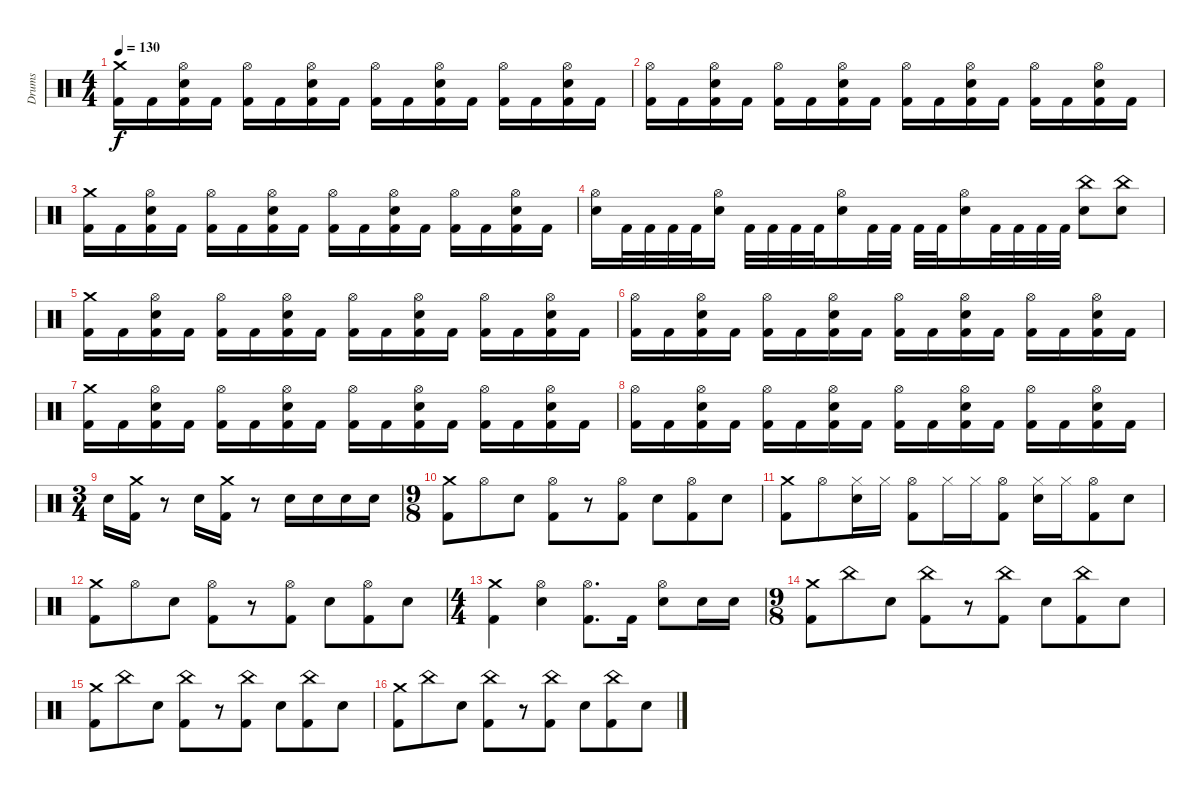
\track ("Drums" "Drums") {instrument percussion}
\staff {score}
\articulation defaults
\ts (4 4)
\tempo 130
\clef neutral
\ks c
("Kick (hit) 2" "Crash medium (hit)").16{dy f} "Kick (hit) 2".16 ("Hi-Hat (open)" "Kick (hit) 2" "Electric Snare (hit)").16 "Kick (hit) 2".16 ("Kick (hit) 2" "Hi-Hat (open)").16 "Kick (hit) 2".16 ("Kick (hit) 2" "Electric Snare (hit)" "Hi-Hat (open)").16 "Kick (hit) 2".16 ("Kick (hit) 2" "Hi-Hat (open)").16 "Kick (hit) 2".16 ("Kick (hit) 2" "Electric Snare (hit)" "Hi-Hat (open)").16 "Kick (hit) 2".16 ("Kick (hit) 2" "Hi-Hat (open)").16 "Kick (hit) 2".16 ("Kick (hit) 2" "Electric Snare (hit)" "Hi-Hat (open)").16 "Kick (hit) 2".16 |
("Hi-Hat (open)" "Kick (hit) 2").16 "Kick (hit) 2".16 ("Hi-Hat (open)" "Kick (hit) 2" "Electric Snare (hit)").16 "Kick (hit) 2".16 ("Kick (hit) 2" "Hi-Hat (open)").16 "Kick (hit) 2".16 ("Kick (hit) 2" "Electric Snare (hit)" "Hi-Hat (open)").16 "Kick (hit) 2".16 ("Kick (hit) 2" "Hi-Hat (open)").16 "Kick (hit) 2".16 ("Kick (hit) 2" "Electric Snare (hit)" "Hi-Hat (open)").16 "Kick (hit) 2".16 ("Kick (hit) 2" "Hi-Hat (open)").16 "Kick (hit) 2".16 ("Kick (hit) 2" "Electric Snare (hit)" "Hi-Hat (open)").16 "Kick (hit) 2".16 |
("Kick (hit) 2" "Crash medium (hit)").16 "Kick (hit) 2".16 ("Hi-Hat (open)" "Kick (hit) 2" "Electric Snare (hit)").16 "Kick (hit) 2".16 ("Kick (hit) 2" "Hi-Hat (open)").16 "Kick (hit) 2".16 ("Kick (hit) 2" "Electric Snare (hit)" "Hi-Hat (open)").16 "Kick (hit) 2".16 ("Kick (hit) 2" "Hi-Hat (open)").16 "Kick (hit) 2".16 ("Kick (hit) 2" "Electric Snare (hit)" "Hi-Hat (open)").16 "Kick (hit) 2".16 ("Kick (hit) 2" "Hi-Hat (open)").16 "Kick (hit) 2".16 ("Kick (hit) 2" "Electric Snare (hit)" "Hi-Hat (open)").16 "Kick (hit) 2".16 |
("Electric Snare (hit)" "Hi-Hat (open)").16 "Kick (hit) 2".32 "Kick (hit) 2".32 "Kick (hit) 2".32 "Kick (hit) 2".32 ("Hi-Hat (open)" "Electric Snare (hit)").16 "Kick (hit) 2".32 "Kick (hit) 2".32 "Kick (hit) 2".32 "Kick (hit) 2".32 ("Hi-Hat (open)" "Electric Snare (hit)").16 "Kick (hit) 2".32 "Kick (hit) 2".32 "Kick (hit) 2".32 "Kick (hit) 2".32 ("Hi-Hat (open)" "Electric Snare (hit)").16 "Kick (hit) 2".32 "Kick (hit) 2".32 "Kick (hit) 2".32 "Kick (hit) 2".32 ("China (hit)" "Electric Snare (hit)").8 ("China (hit)" "Electric Snare (hit)").8 |
("Kick (hit) 2" "Crash medium (hit)").16 "Kick (hit) 2".16 ("Hi-Hat (open)" "Kick (hit) 2" "Electric Snare (hit)").16 "Kick (hit) 2".16 ("Kick (hit) 2" "Hi-Hat (open)").16 "Kick (hit) 2".16 ("Kick (hit) 2" "Electric Snare (hit)" "Hi-Hat (open)").16 "Kick (hit) 2".16 ("Kick (hit) 2" "Hi-Hat (open)").16 "Kick (hit) 2".16 ("Kick (hit) 2" "Electric Snare (hit)" "Hi-Hat (open)").16 "Kick (hit) 2".16 ("Kick (hit) 2" "Hi-Hat (open)").16 "Kick (hit) 2".16 ("Kick (hit) 2" "Electric Snare (hit)" "Hi-Hat (open)").16 "Kick (hit) 2".16 |
("Hi-Hat (open)" "Kick (hit) 2").16 "Kick (hit) 2".16 ("Hi-Hat (open)" "Kick (hit) 2" "Electric Snare (hit)").16 "Kick (hit) 2".16 ("Kick (hit) 2" "Hi-Hat (open)").16 "Kick (hit) 2".16 ("Kick (hit) 2" "Electric Snare (hit)" "Hi-Hat (open)").16 "Kick (hit) 2".16 ("Kick (hit) 2" "Hi-Hat (open)").16 "Kick (hit) 2".16 ("Kick (hit) 2" "Electric Snare (hit)" "Hi-Hat (open)").16 "Kick (hit) 2".16 ("Kick (hit) 2" "Hi-Hat (open)").16 "Kick (hit) 2".16 ("Kick (hit) 2" "Electric Snare (hit)" "Hi-Hat (open)").16 "Kick (hit) 2".16 |
("Kick (hit) 2" "Crash medium (hit)").16 "Kick (hit) 2".16 ("Hi-Hat (open)" "Kick (hit) 2" "Electric Snare (hit)").16 "Kick (hit) 2".16 ("Kick (hit) 2" "Hi-Hat (open)").16 "Kick (hit) 2".16 ("Kick (hit) 2" "Electric Snare (hit)" "Hi-Hat (open)").16 "Kick (hit) 2".16 ("Kick (hit) 2" "Hi-Hat (open)").16 "Kick (hit) 2".16 ("Kick (hit) 2" "Electric Snare (hit)" "Hi-Hat (open)").16 "Kick (hit) 2".16 ("Kick (hit) 2" "Hi-Hat (open)").16 "Kick (hit) 2".16 ("Kick (hit) 2" "Electric Snare (hit)" "Hi-Hat (open)").16 "Kick (hit) 2".16 |
("Hi-Hat (open)" "Kick (hit) 2").16 "Kick (hit) 2".16 ("Hi-Hat (open)" "Kick (hit) 2" "Electric Snare (hit)").16 "Kick (hit) 2".16 ("Kick (hit) 2" "Hi-Hat (open)").16 "Kick (hit) 2".16 ("Kick (hit) 2" "Electric Snare (hit)" "Hi-Hat (open)").16 "Kick (hit) 2".16 ("Kick (hit) 2" "Hi-Hat (open)").16 "Kick (hit) 2".16 ("Kick (hit) 2" "Electric Snare (hit)" "Hi-Hat (open)").16 "Kick (hit) 2".16 ("Kick (hit) 2" "Hi-Hat (open)").16 "Kick (hit) 2".16 ("Kick (hit) 2" "Electric Snare (hit)" "Hi-Hat (open)").16 "Kick (hit) 2".16 |
\ts (3 4)
"Electric Snare (hit)".16 ("Crash medium (hit)" "Kick (hit) 2").16 r.8 "Electric Snare (hit)".16 ("Crash medium (hit)" "Kick (hit) 2").16 r.8 "Electric Snare (hit)".16 "Electric Snare (hit)".16 "Electric Snare (hit)".16 "Electric Snare (hit)".16 |
\ts (9 8)
("Kick (hit) 2" "Crash medium (hit)").8 "Hi-Hat (open)".8 "Electric Snare (hit)".8 ("Hi-Hat (open)" "Kick (hit) 2").8 r.8 ("Hi-Hat (open)" "Kick (hit) 2").8 "Electric Snare (hit)".8 ("Hi-Hat (open)" "Kick (hit) 2").8 "Electric Snare (hit)".8 |
("Kick (hit) 2" "Crash medium (hit)").8 "Hi-Hat (open)".8 ("Hi-Hat (closed)" "Electric Snare (hit)").16 "Hi-Hat (closed)".16 ("Hi-Hat (open)" "Kick (hit) 2").8 "Hi-Hat (closed)".16 "Hi-Hat (closed)".16 ("Hi-Hat (open)" "Kick (hit) 2").8 ("Hi-Hat (closed)" "Electric Snare (hit)").16 "Hi-Hat (closed)".16 ("Hi-Hat (open)" "Kick (hit) 2").8 "Electric Snare (hit)".8 |
("Kick (hit) 2" "Crash medium (hit)").8 "Hi-Hat (open)".8 "Electric Snare (hit)".8 ("Hi-Hat (open)" "Kick (hit) 2").8 r.8 ("Hi-Hat (open)" "Kick (hit) 2").8 "Electric Snare (hit)".8 ("Hi-Hat (open)" "Kick (hit) 2").8 "Electric Snare (hit)".8 |
\ts (4 4)
("Kick (hit) 2" "Crash medium (hit)").4 ("Electric Snare (hit)" "Hi-Hat (open)").4 ("Kick (hit) 2" "Hi-Hat (open)").8{d} "Kick (hit) 2".16 ("Hi-Hat (open)" "Electric Snare (hit)").8 "Electric Snare (hit)".16 "Electric Snare (hit)".16 |
\ts (9 8)
("Kick (hit) 2" "Crash medium (hit)").8 "China (hit)".8 "Electric Snare (hit)".8 ("China (hit)" "Kick (hit) 2").8 r.8 ("China (hit)" "Kick (hit) 2").8 "Electric Snare (hit)".8 ("China (hit)" "Kick (hit) 2").8 "Electric Snare (hit)".8 |
("Kick (hit) 2" "Crash medium (hit)").8 "China (hit)".8 "Electric Snare (hit)".8 ("China (hit)" "Kick (hit) 2").8 r.8 ("China (hit)" "Kick (hit) 2").8 "Electric Snare (hit)".8 ("China (hit)" "Kick (hit) 2").8 "Electric Snare (hit)".8 |
("Kick (hit) 2" "Crash medium (hit)").8 "China (hit)".8 "Electric Snare (hit)".8 ("China (hit)" "Kick (hit) 2").8 r.8 ("China (hit)" "Kick (hit) 2").8 "Electric Snare (hit)".8 ("China (hit)" "Kick (hit) 2").8 "Electric Snare (hit)".8
